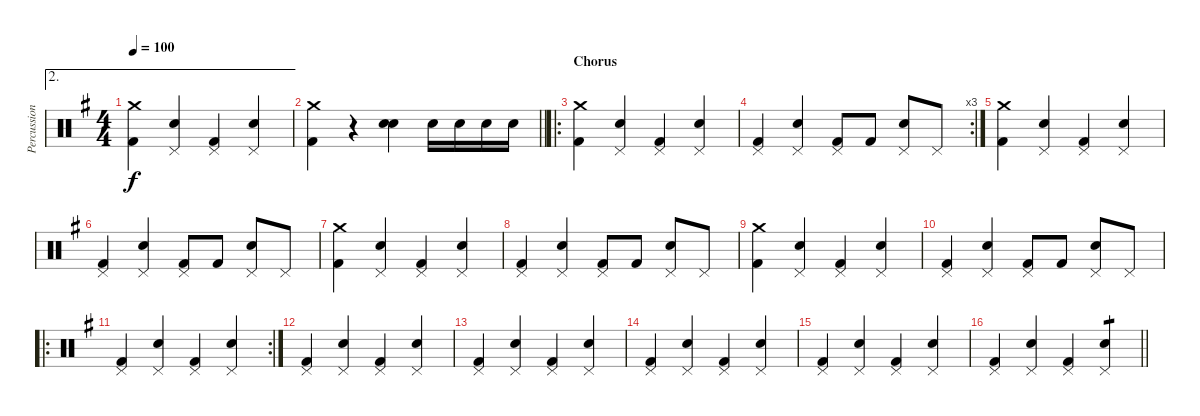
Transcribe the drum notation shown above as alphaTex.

\track ("Percussion" "Percussion") {instrument percussion}
\staff {score}
\articulation defaults
\ae 2
\ts (4 4)
\tempo 100
\clef neutral
\ks g
("Kick (hit) 2" "Crash medium (hit)").4{dy f} ("Snare (hit) 2" "Pedal Hi-Hat (hit)").4 ("Kick (hit) 2" "Pedal Hi-Hat (hit)").4 ("Snare (hit) 2" "Pedal Hi-Hat (hit)").4 |
\barLineRight lightlight
("Kick (hit) 2" "Crash medium (hit)").4 r.4 ("Snare (hit) 2" "Electric Snare (hit)").4 "Snare (hit) 2".16 "Snare (hit) 2".16 "Snare (hit) 2".16 "Snare (hit) 2".16 |
\ro
\section ("" "Chorus")
("Kick (hit) 2" "Crash medium (hit)").4 ("Snare (hit) 2" "Pedal Hi-Hat (hit)").4 ("Kick (hit) 2" "Pedal Hi-Hat (hit)").4 ("Snare (hit) 2" "Pedal Hi-Hat (hit)").4 |
\rc 3
("Kick (hit) 2" "Pedal Hi-Hat (hit)").4 ("Snare (hit) 2" "Pedal Hi-Hat (hit)").4 ("Kick (hit) 2" "Pedal Hi-Hat (hit)").8 "Kick (hit) 2".8 ("Snare (hit) 2" "Pedal Hi-Hat (hit)").8 "Pedal Hi-Hat (hit)".8 |
("Kick (hit) 2" "Crash medium (hit)").4 ("Snare (hit) 2" "Pedal Hi-Hat (hit)").4 ("Kick (hit) 2" "Pedal Hi-Hat (hit)").4 ("Snare (hit) 2" "Pedal Hi-Hat (hit)").4 |
("Kick (hit) 2" "Pedal Hi-Hat (hit)").4 ("Snare (hit) 2" "Pedal Hi-Hat (hit)").4 ("Kick (hit) 2" "Pedal Hi-Hat (hit)").8 "Kick (hit) 2".8 ("Snare (hit) 2" "Pedal Hi-Hat (hit)").8 "Pedal Hi-Hat (hit)".8 |
("Kick (hit) 2" "Crash medium (hit)").4 ("Snare (hit) 2" "Pedal Hi-Hat (hit)").4 ("Kick (hit) 2" "Pedal Hi-Hat (hit)").4 ("Snare (hit) 2" "Pedal Hi-Hat (hit)").4 |
("Kick (hit) 2" "Pedal Hi-Hat (hit)").4 ("Snare (hit) 2" "Pedal Hi-Hat (hit)").4 ("Kick (hit) 2" "Pedal Hi-Hat (hit)").8 "Kick (hit) 2".8 ("Snare (hit) 2" "Pedal Hi-Hat (hit)").8 "Pedal Hi-Hat (hit)".8 |
("Kick (hit) 2" "Crash medium (hit)").4 ("Snare (hit) 2" "Pedal Hi-Hat (hit)").4 ("Kick (hit) 2" "Pedal Hi-Hat (hit)").4 ("Snare (hit) 2" "Pedal Hi-Hat (hit)").4 |
("Kick (hit) 2" "Pedal Hi-Hat (hit)").4 ("Snare (hit) 2" "Pedal Hi-Hat (hit)").4 ("Kick (hit) 2" "Pedal Hi-Hat (hit)").8 "Kick (hit) 2".8 ("Snare (hit) 2" "Pedal Hi-Hat (hit)").8 "Pedal Hi-Hat (hit)".8 |
\ro
\rc 2
("Kick (hit) 2" "Pedal Hi-Hat (hit)").4 ("Snare (hit) 2" "Pedal Hi-Hat (hit)").4 ("Kick (hit) 2" "Pedal Hi-Hat (hit)").4 ("Snare (hit) 2" "Pedal Hi-Hat (hit)").4 |
("Kick (hit) 2" "Pedal Hi-Hat (hit)").4 ("Snare (hit) 2" "Pedal Hi-Hat (hit)").4 ("Kick (hit) 2" "Pedal Hi-Hat (hit)").4 ("Snare (hit) 2" "Pedal Hi-Hat (hit)").4 |
("Kick (hit) 2" "Pedal Hi-Hat (hit)").4 ("Snare (hit) 2" "Pedal Hi-Hat (hit)").4 ("Kick (hit) 2" "Pedal Hi-Hat (hit)").4 ("Snare (hit) 2" "Pedal Hi-Hat (hit)").4 |
("Kick (hit) 2" "Pedal Hi-Hat (hit)").4 ("Snare (hit) 2" "Pedal Hi-Hat (hit)").4 ("Kick (hit) 2" "Pedal Hi-Hat (hit)").4 ("Snare (hit) 2" "Pedal Hi-Hat (hit)").4 |
("Kick (hit) 2" "Pedal Hi-Hat (hit)").4 ("Snare (hit) 2" "Pedal Hi-Hat (hit)").4 ("Kick (hit) 2" "Pedal Hi-Hat (hit)").4 ("Snare (hit) 2" "Pedal Hi-Hat (hit)").4 |
\barLineRight lightlight
("Kick (hit) 2" "Pedal Hi-Hat (hit)").4 ("Snare (hit) 2" "Pedal Hi-Hat (hit)").4 ("Kick (hit) 2" "Pedal Hi-Hat (hit)").4 ("Snare (hit) 2" "Pedal Hi-Hat (hit)").4{tp 1}
